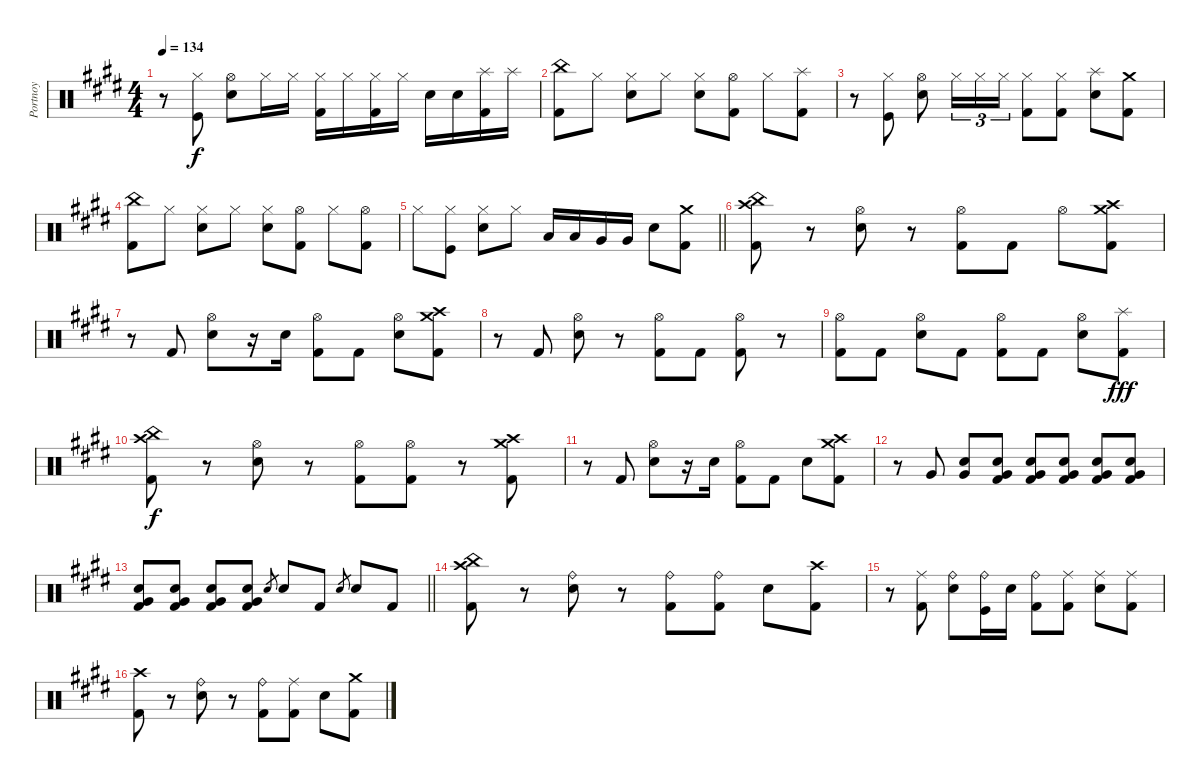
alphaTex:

\track ("Portnoy" "Portnoy") {instrument percussion}
\staff {score}
\articulation defaults
\ts (4 4)
\tempo 134
\clef neutral
\ks c#minor
r.8{dy f} ("Kick (hit)" "Hi-Hat (closed)").8 ("Snare (hit) 2" "Hi-Hat (open)").8 "Hi-Hat (closed)".16 "Hi-Hat (closed)".16 ("Kick (hit) 2" "Hi-Hat (closed)").16 "Hi-Hat (closed)".16 ("Kick (hit) 2" "Hi-Hat (closed)").16 "Hi-Hat (closed)".16 "Electric Snare (hit)".16 "Electric Snare (hit)".16 ("Kick (hit) 2" "Splash (hit)").16 "Splash (hit)".16 |
("Kick (hit) 2" "China (hit)").8 "Hi-Hat (closed)".8 ("Snare (hit) 2" "Hi-Hat (closed)").8 "Hi-Hat (closed)".8 ("Snare (hit) 2" "Hi-Hat (closed)").8 ("Kick (hit) 2" "Hi-Hat (open)").8 "Hi-Hat (closed)".8 ("Kick (hit) 2" "Splash (hit)").8 |
r.8 ("Kick (hit)" "Hi-Hat (closed)").8 ("Snare (hit) 2" "Hi-Hat (open)").8 "Hi-Hat (closed)".16{tu (3 2)} "Hi-Hat (closed)".16{tu (3 2)} "Hi-Hat (closed)".16{tu (3 2)} ("Kick (hit) 2" "Hi-Hat (closed)").8 ("Kick (hit) 2" "Hi-Hat (closed)").8 ("Snare (hit) 2" "Splash (hit)").8 ("Kick (hit) 2" "Crash medium (hit)").8 |
("Kick (hit) 2" "China (hit)").8 "Hi-Hat (closed)".8 ("Snare (hit) 2" "Hi-Hat (closed)").8 "Hi-Hat (closed)".8 ("Snare (hit) 2" "Hi-Hat (closed)").8 ("Kick (hit) 2" "Hi-Hat (open)").8 "Hi-Hat (closed)".8 ("Kick (hit) 2" "Hi-Hat (open)").8 |
\barLineRight lightlight "Hi-Hat (closed)".8
("Kick (hit)" "Hi-Hat (closed)").8 ("Snare (hit) 2" "Hi-Hat (closed)").8 "Hi-Hat (closed)".8 "Low Tom (hit)".16 "Low Tom (hit)".16 "Very Low Tom (hit)".16 "Very Low Tom (hit)".16 "Snare (hit) 2".8 ("Crash medium (hit)" "Kick (hit) 2").8 |
("Kick (hit) 2" "Crash high (hit)" "China (hit)").8 r.8 ("Snare (hit) 2" "Hi-Hat (open)").8 r.8 ("Kick (hit) 2" "Hi-Hat (open)").8 "Kick (hit) 2".8 "Hi-Hat (open)".8 ("Kick (hit) 2" "Crash high (hit)" "Crash medium (hit)").8 |
r.8 "Kick (hit) 2".8 ("Snare (hit) 2" "Hi-Hat (open)").8 r.16 "Electric Snare (hit)".16 ("Kick (hit) 2" "Hi-Hat (open)").8 "Kick (hit) 2".8 ("Snare (hit) 2" "Hi-Hat (open)").8 ("Kick (hit) 2" "Crash medium (hit)" "Crash high (hit)").8 |
r.8 "Kick (hit) 2".8 ("Snare (hit) 2" "Hi-Hat (open)").8 r.8 ("Kick (hit) 2" "Hi-Hat (open)").8 "Kick (hit) 2".8 ("Kick (hit) 2" "Hi-Hat (open)").8 r.8 |
("Kick (hit) 2" "Hi-Hat (open)").8 "Kick (hit) 2".8 ("Snare (hit) 2" "Hi-Hat (open)").8 "Kick (hit) 2".8 ("Kick (hit) 2" "Hi-Hat (open)").8 "Kick (hit) 2".8 ("Snare (hit) 2" "Hi-Hat (open)").8 ("Kick (hit) 2" "Splash (hit)").8{dy fff} |
("Kick (hit) 2" "Crash high (hit)" "China (hit)").8{dy f} r.8 ("Snare (hit) 2" "Hi-Hat (open)").8 r.8 ("Kick (hit) 2" "Hi-Hat (open)").8 ("Kick (hit) 2" "Hi-Hat (open)").8 r.8 ("Kick (hit) 2" "Crash high (hit)" "Crash medium (hit)").8 |
r.8 "Kick (hit) 2".8 ("Snare (hit) 2" "Hi-Hat (open)").8 r.16 "Electric Snare (hit)".16 ("Kick (hit) 2" "Hi-Hat (open)").8 "Kick (hit) 2".8 "Snare (hit) 2".8 ("Kick (hit) 2" "Crash medium (hit)" "Crash high (hit)").8 |
r.8 "Very Low Tom (hit)".8 ("Very Low Tom (hit)" "Snare (hit) 2").8 ("Very Low Tom (hit)" "Snare (hit) 2" "Kick (hit) 2").8 ("Very Low Tom (hit)" "Snare (hit) 2" "Kick (hit) 2").8 ("Very Low Tom (hit)" "Snare (hit) 2" "Kick (hit) 2").8 ("Very Low Tom (hit)" "Snare (hit) 2" "Kick (hit) 2").8 ("Very Low Tom (hit)" "Snare (hit) 2" "Kick (hit) 2").8 |
\barLineRight lightlight
("Very Low Tom (hit)" "Snare (hit) 2" "Kick (hit) 2").8 ("Very Low Tom (hit)" "Snare (hit) 2" "Kick (hit) 2").8 ("Very Low Tom (hit)" "Snare (hit) 2" "Kick (hit) 2").8 ("Very Low Tom (hit)" "Snare (hit) 2" "Kick (hit) 2").8 "Electric Snare (hit)".8{gr} "Snare (hit) 2".8 "Kick (hit) 2".8 "Electric Snare (hit)".8{gr} "Snare (hit) 2".8 "Kick (hit) 2".8 |
("Kick (hit) 2" "Crash high (hit)" "China (hit)").8 r.8 ("Snare (hit) 2" "Ride (bell)").8 r.8 ("Kick (hit) 2" "Ride (bell)").8 ("Kick (hit) 2" "Ride (bell)").8 "Snare (hit) 2".8 ("Kick (hit) 2" "Crash high (hit)").8 |
r.8 ("Kick (hit) 2" "Ride (middle)").8 ("Snare (hit) 2" "Ride (bell)").8 ("Kick (hit)" "Ride (bell)").16 "Electric Snare (hit)".16 ("Kick (hit) 2" "Ride (bell)").8 ("Kick (hit) 2" "Ride (middle)").8 ("Snare (hit) 2" "Ride (middle)").8 ("Kick (hit) 2" "Ride (middle)").8 |
("Kick (hit) 2" "Crash high (hit)").8 r.8 ("Snare (hit) 2" "Ride (bell)").8 r.8 ("Kick (hit) 2" "Ride (bell)").8 ("Kick (hit) 2" "Ride (middle)").8 "Snare (hit) 2".8 ("Kick (hit) 2" "Crash medium (hit)").8
